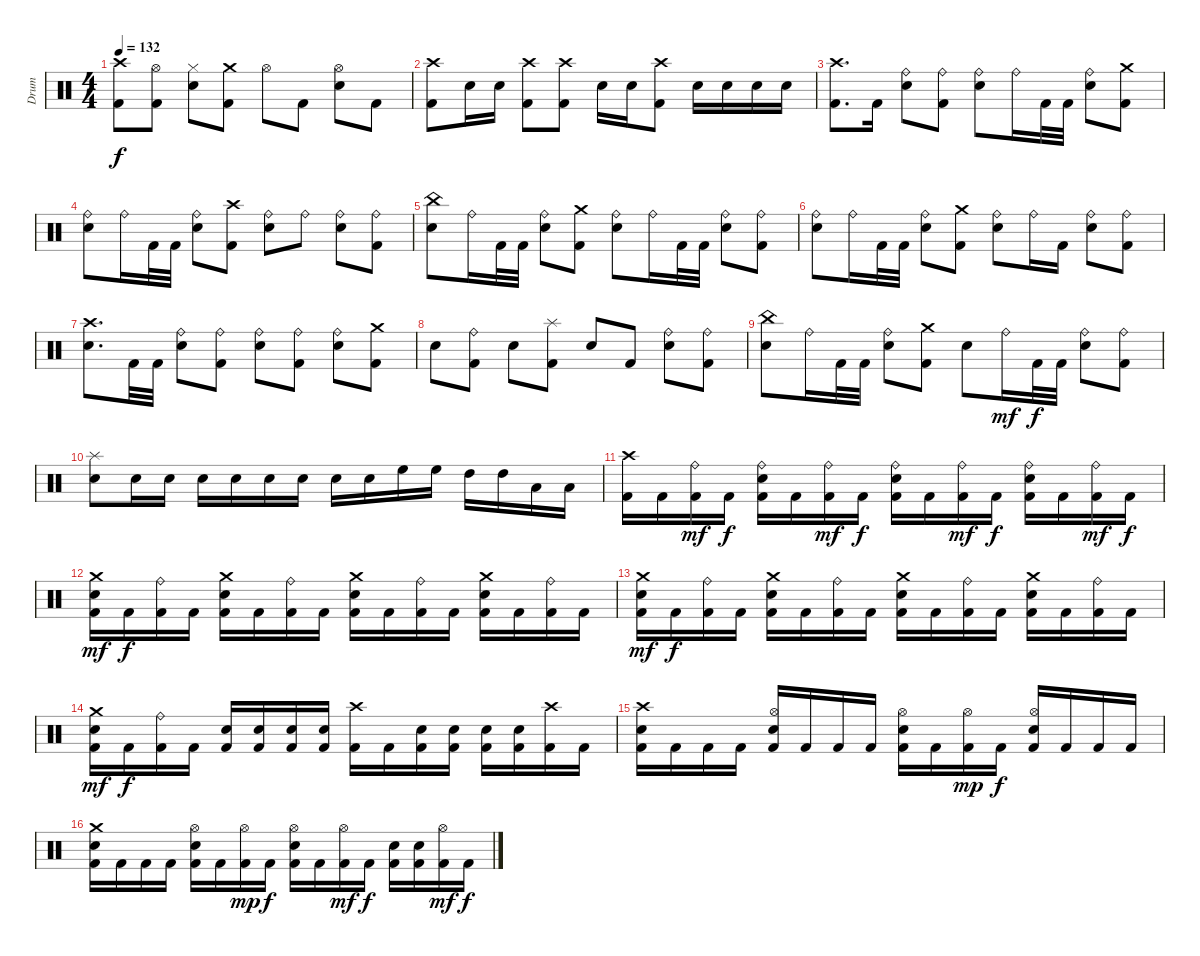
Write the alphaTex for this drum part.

\track ("Drum" "Drum") {instrument percussion}
\staff {score}
\articulation defaults
\ts (4 4)
\tempo 132
\clef neutral
\ks c
("Crash high (hit)" "Kick (hit) 2").8{dy f} ("Kick (hit) 2" "Hi-Hat (open)").8 ("Electric Snare (hit)" "Hi-Hat (closed)").8 ("Kick (hit) 2" "Crash medium (hit)").8 "Hi-Hat (open)".8 "Kick (hit) 2".8 ("Electric Snare (hit)" "Hi-Hat (open)").8 "Kick (hit) 2".8 |
("Crash high (hit)" "Kick (hit) 2").8 "Electric Snare (hit)".16 "Electric Snare (hit)".16 ("Crash high (hit)" "Kick (hit) 2").8 ("Crash high (hit)" "Kick (hit) 2").8 "Electric Snare (hit)".16 "Electric Snare (hit)".16 ("Crash high (hit)" "Kick (hit) 2").8 "Electric Snare (hit)".16 "Electric Snare (hit)".16 "Electric Snare (hit)".16 "Electric Snare (hit)".16 |
("Crash high (hit)" "Kick (hit) 2").8{d} "Kick (hit) 2".16 ("Electric Snare (hit)" "Ride (bell)").8 ("Kick (hit) 2" "Ride (bell)").8 ("Electric Snare (hit)" "Ride (bell)").8 "Ride (bell)".16 "Kick (hit) 2".32 "Kick (hit) 2".32 ("Electric Snare (hit)" "Ride (bell)").8 ("Kick (hit) 2" "Crash medium (hit)").8 |
("Ride (bell)" "Electric Snare (hit)").8 "Ride (bell)".16 "Kick (hit) 2".32 "Kick (hit) 2".32 ("Electric Snare (hit)" "Ride (bell)").8 ("Kick (hit) 2" "Crash high (hit)").8 ("Ride (bell)" "Electric Snare (hit)").8 "Ride (bell)".8 ("Ride (bell)" "Electric Snare (hit)").8 ("Ride (bell)" "Kick (hit) 2").8 |
("Electric Snare (hit)" "China (hit)").8 "Ride (bell)".16 "Kick (hit) 2".32 "Kick (hit) 2".32 ("Electric Snare (hit)" "Ride (bell)").8 ("Kick (hit) 2" "Crash medium (hit)").8 ("Electric Snare (hit)" "Ride (bell)").8 "Ride (bell)".16 "Kick (hit) 2".32 "Kick (hit) 2".32 ("Electric Snare (hit)" "Ride (bell)").8 ("Ride (bell)" "Kick (hit) 2").8 |
("Electric Snare (hit)" "Ride (bell)").8 "Ride (bell)".16 "Kick (hit) 2".32 "Kick (hit) 2".32 ("Electric Snare (hit)" "Ride (bell)").8 ("Kick (hit) 2" "Crash medium (hit)").8 ("Electric Snare (hit)" "Ride (bell)").8 "Ride (bell)".16 "Kick (hit) 2".16 ("Electric Snare (hit)" "Ride (bell)").8 ("Ride (bell)" "Kick (hit) 2").8 |
("Crash high (hit)" "Electric Snare (hit)").8{d} "Kick (hit) 2".32 "Kick (hit) 2".32 ("Electric Snare (hit)" "Ride (bell)").8 ("Kick (hit) 2" "Ride (bell)").8 ("Electric Snare (hit)" "Ride (bell)").8 ("Ride (bell)" "Kick (hit) 2").8 ("Electric Snare (hit)" "Ride (bell)").8 ("Kick (hit) 2" "Crash medium (hit)").8 |
"Electric Snare (hit)".8 ("Ride (bell)" "Kick (hit) 2").8 "Electric Snare (hit)".8 ("Kick (hit) 2" "Splash (hit)").8 "Electric Snare (hit)".8 "Kick (hit) 2".8 ("Ride (bell)" "Electric Snare (hit)").8 ("Ride (bell)" "Kick (hit) 2").8 |
("Electric Snare (hit)" "China (hit)").8 "Ride (bell)".16 "Kick (hit) 2".32 "Kick (hit) 2".32 ("Electric Snare (hit)" "Ride (bell)").8 ("Kick (hit) 2" "Crash medium (hit)").8 "Electric Snare (hit)".8 "Ride (bell)".16{dy mf} "Kick (hit) 2".32{dy f} "Kick (hit) 2".32 ("Electric Snare (hit)" "Ride (bell)").8 ("Ride (bell)" "Kick (hit) 2").8 |
("Electric Snare (hit)" "Splash (hit)").8 "Electric Snare (hit)".16 "Electric Snare (hit)".16 "Electric Snare (hit)".16 "Electric Snare (hit)".16 "Electric Snare (hit)".16 "Electric Snare (hit)".16 "Electric Snare (hit)".16 "Electric Snare (hit)".16 "High Floor Tom (hit)".16 "High Floor Tom (hit)".16 "High Tom (hit)".16 "High Tom (hit)".16 "Low Tom (hit)".16 "Low Tom (hit)".16 |
("Kick (hit) 2" "Crash high (hit)").16 "Kick (hit) 2".16 ("Kick (hit) 2" "Ride (bell)").16{dy mf} "Kick (hit) 2".16{dy f} ("Kick (hit) 2" "Electric Snare (hit)" "Ride (bell)").16 "Kick (hit) 2".16 ("Kick (hit) 2" "Ride (bell)").16{dy mf} "Kick (hit) 2".16{dy f} ("Kick (hit) 2" "Electric Snare (hit)" "Ride (bell)").16 "Kick (hit) 2".16 ("Kick (hit) 2" "Ride (bell)").16{dy mf} "Kick (hit) 2".16{dy f} ("Kick (hit) 2" "Electric Snare (hit)" "Ride (bell)").16 "Kick (hit) 2".16 ("Kick (hit) 2" "Ride (bell)").16{dy mf} "Kick (hit) 2".16{dy f} |
("Kick (hit) 2" "Electric Snare (hit)" "Crash medium (hit)").16{dy mf} "Kick (hit) 2".16{dy f} ("Kick (hit) 2" "Ride (bell)").16 "Kick (hit) 2".16 ("Kick (hit) 2" "Electric Snare (hit)" "Crash medium (hit)").16 "Kick (hit) 2".16 ("Kick (hit) 2" "Ride (bell)").16 "Kick (hit) 2".16 ("Kick (hit) 2" "Electric Snare (hit)" "Crash medium (hit)").16 "Kick (hit) 2".16 ("Kick (hit) 2" "Ride (bell)").16 "Kick (hit) 2".16 ("Kick (hit) 2" "Electric Snare (hit)" "Crash medium (hit)").16 "Kick (hit) 2".16 ("Kick (hit) 2" "Ride (bell)").16 "Kick (hit) 2".16 |
("Crash medium (hit)" "Electric Snare (hit)" "Kick (hit) 2").16{dy mf} "Kick (hit) 2".16{dy f} ("Kick (hit) 2" "Ride (bell)").16 "Kick (hit) 2".16 ("Kick (hit) 2" "Electric Snare (hit)" "Crash medium (hit)").16 "Kick (hit) 2".16 ("Kick (hit) 2" "Ride (bell)").16 "Kick (hit) 2".16 ("Kick (hit) 2" "Electric Snare (hit)" "Crash medium (hit)").16 "Kick (hit) 2".16 ("Kick (hit) 2" "Ride (bell)").16 "Kick (hit) 2".16 ("Kick (hit) 2" "Electric Snare (hit)" "Crash medium (hit)").16 "Kick (hit) 2".16 ("Kick (hit) 2" "Ride (bell)").16 "Kick (hit) 2".16 |
("Crash medium (hit)" "Electric Snare (hit)" "Kick (hit) 2").16{dy mf} "Kick (hit) 2".16{dy f} ("Kick (hit) 2" "Ride (bell)").16 "Kick (hit) 2".16 ("Kick (hit) 2" "Electric Snare (hit)").16 ("Kick (hit) 2" "Electric Snare (hit)").16 ("Kick (hit) 2" "Electric Snare (hit)").16 ("Kick (hit) 2" "Electric Snare (hit)").16 ("Kick (hit) 2" "Crash high (hit)").16 "Kick (hit) 2".16 ("Kick (hit) 2" "Electric Snare (hit)").16 ("Kick (hit) 2" "Electric Snare (hit)").16 ("Kick (hit) 2" "Electric Snare (hit)").16 ("Kick (hit) 2" "Electric Snare (hit)").16 ("Kick (hit) 2" "Crash high (hit)").16 "Kick (hit) 2".16 |
("Crash high (hit)" "Kick (hit) 2" "Electric Snare (hit)").16 "Kick (hit) 2".16 "Kick (hit) 2".16 "Kick (hit) 2".16 ("Kick (hit) 2" "Electric Snare (hit)" "Hi-Hat (open)").16 "Kick (hit) 2".16 "Kick (hit) 2".16 "Kick (hit) 2".16 ("Kick (hit) 2" "Electric Snare (hit)" "Hi-Hat (open)").16 "Kick (hit) 2".16 ("Kick (hit) 2" "Hi-Hat (open)").16{dy mp} "Kick (hit) 2".16{dy f} ("Kick (hit) 2" "Electric Snare (hit)" "Hi-Hat (open)").16 "Kick (hit) 2".16 "Kick (hit) 2".16 "Kick (hit) 2".16 |
("Kick (hit) 2" "Electric Snare (hit)" "Crash medium (hit)").16 "Kick (hit) 2".16 "Kick (hit) 2".16 "Kick (hit) 2".16 ("Kick (hit) 2" "Electric Snare (hit)" "Hi-Hat (open)").16 "Kick (hit) 2".16 ("Kick (hit) 2" "Hi-Hat (open)").16{dy mp} "Kick (hit) 2".16{dy f} ("Kick (hit) 2" "Electric Snare (hit)" "Hi-Hat (open)").16 "Kick (hit) 2".16 ("Kick (hit) 2" "Hi-Hat (open)").16{dy mf} "Kick (hit) 2".16{dy f} ("Kick (hit) 2" "Electric Snare (hit)").16 ("Kick (hit) 2" "Electric Snare (hit)").16 ("Kick (hit) 2" "Hi-Hat (open)").16{dy mf} "Kick (hit) 2".16{dy f}
